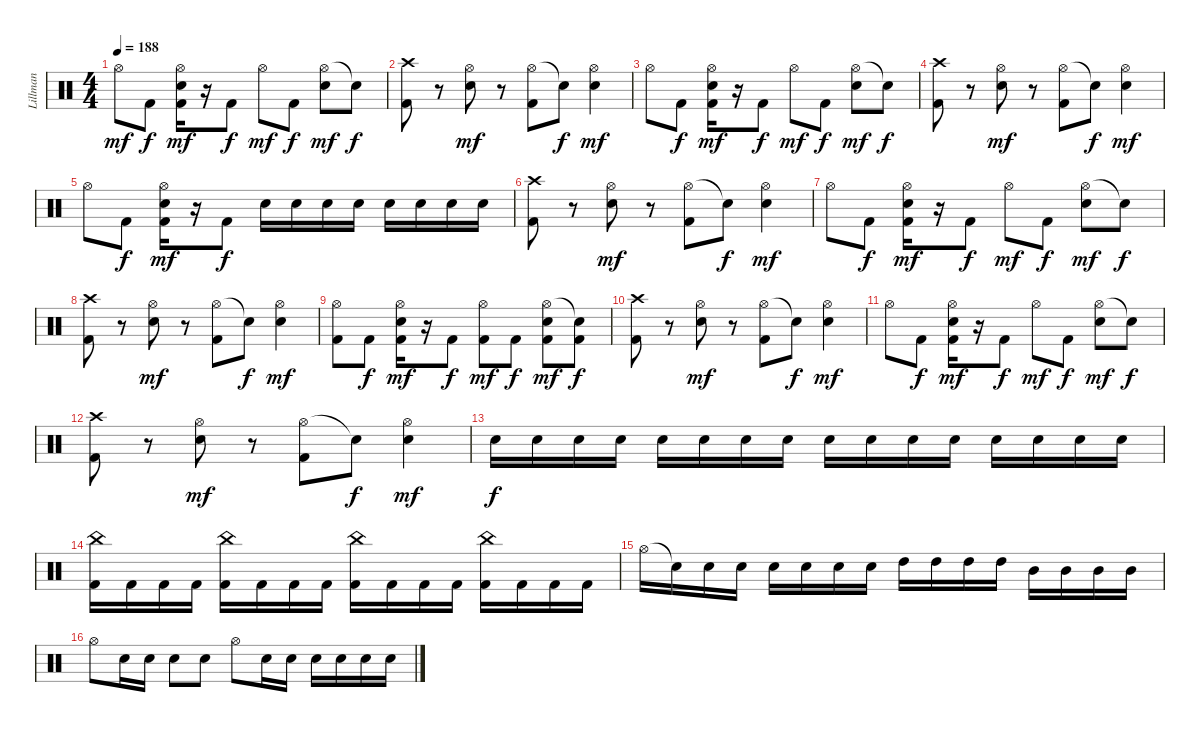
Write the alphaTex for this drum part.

\track ("Lillman" "Lillman") {instrument percussion}
\staff {score}
\articulation defaults
\ts (4 4)
\tempo 188
\clef neutral
\ks c "Hi-Hat (open)".8{dy mf} "Kick (hit) 2".8{dy f}
("Hi-Hat (open)" "Snare (hit) 2" "Kick (hit) 2").16{dy mf} r.16 "Kick (hit) 2".8{dy f} "Hi-Hat (open)".8{dy mf} "Kick (hit) 2".8{dy f} ("Hi-Hat (open)" "Snare (hit) 2").8{dy mf} "Snare (hit)"{t}.8{dy f} |
("Crash high (hit)" "Kick (hit) 2").8 r.8 ("Hi-Hat (open)" "Snare (hit) 2").8{dy mf} r.8 ("Hi-Hat (open)" "Kick (hit) 2").8 "Snare (hit)"{t}.8{dy f} ("Hi-Hat (open)" "Snare (hit) 2").4{dy mf} |
"Hi-Hat (open)".8 "Kick (hit) 2".8{dy f} ("Hi-Hat (open)" "Snare (hit) 2" "Kick (hit) 2").16{dy mf} r.16 "Kick (hit) 2".8{dy f} "Hi-Hat (open)".8{dy mf} "Kick (hit) 2".8{dy f} ("Hi-Hat (open)" "Snare (hit) 2").8{dy mf} "Snare (hit)"{t}.8{dy f} |
("Crash high (hit)" "Kick (hit) 2").8 r.8 ("Hi-Hat (open)" "Snare (hit) 2").8{dy mf} r.8 ("Hi-Hat (open)" "Kick (hit) 2").8 "Snare (hit)"{t}.8{dy f} ("Hi-Hat (open)" "Snare (hit) 2").4{dy mf} |
"Hi-Hat (open)".8 "Kick (hit) 2".8{dy f} ("Hi-Hat (open)" "Snare (hit) 2" "Kick (hit) 2").16{dy mf} r.16 "Kick (hit) 2".8{dy f} "Snare (hit) 2".16 "Snare (hit) 2".16 "Snare (hit) 2".16 "Snare (hit) 2".16 "Snare (hit) 2".16 "Snare (hit) 2".16 "Snare (hit) 2".16 "Snare (hit) 2".16 |
("Crash high (hit)" "Kick (hit) 2").8 r.8 ("Hi-Hat (open)" "Snare (hit) 2").8{dy mf} r.8 ("Hi-Hat (open)" "Kick (hit) 2").8 "Snare (hit)"{t}.8{dy f} ("Hi-Hat (open)" "Snare (hit) 2").4{dy mf} |
"Hi-Hat (open)".8 "Kick (hit) 2".8{dy f} ("Hi-Hat (open)" "Snare (hit) 2" "Kick (hit) 2").16{dy mf} r.16 "Kick (hit) 2".8{dy f} "Hi-Hat (open)".8{dy mf} "Kick (hit) 2".8{dy f} ("Hi-Hat (open)" "Snare (hit) 2").8{dy mf} "Snare (hit)"{t}.8{dy f} |
("Crash high (hit)" "Kick (hit) 2").8 r.8 ("Hi-Hat (open)" "Snare (hit) 2").8{dy mf} r.8 ("Hi-Hat (open)" "Kick (hit) 2").8 "Snare (hit)"{t}.8{dy f} ("Hi-Hat (open)" "Snare (hit) 2").4{dy mf} |
("Hi-Hat (open)" "Kick (hit) 2").8 "Kick (hit) 2".8{dy f} ("Hi-Hat (open)" "Snare (hit) 2" "Kick (hit) 2").16{dy mf} r.16 "Kick (hit) 2".8{dy f} ("Hi-Hat (open)" "Kick (hit) 2").8{dy mf} "Kick (hit) 2".8{dy f} ("Hi-Hat (open)" "Snare (hit) 2" "Kick (hit) 2").8{dy mf} ("Snare (hit)"{t} "Kick (hit) 2").8{dy f} |
("Crash high (hit)" "Kick (hit) 2").8 r.8 ("Hi-Hat (open)" "Snare (hit) 2").8{dy mf} r.8 ("Hi-Hat (open)" "Kick (hit) 2").8 "Snare (hit)"{t}.8{dy f} ("Hi-Hat (open)" "Snare (hit) 2").4{dy mf} |
"Hi-Hat (open)".8 "Kick (hit) 2".8{dy f} ("Hi-Hat (open)" "Snare (hit) 2" "Kick (hit) 2").16{dy mf} r.16 "Kick (hit) 2".8{dy f} "Hi-Hat (open)".8{dy mf} "Kick (hit) 2".8{dy f} ("Hi-Hat (open)" "Snare (hit) 2").8{dy mf} "Snare (hit)"{t}.8{dy f} |
("Crash high (hit)" "Kick (hit) 2").8 r.8 ("Hi-Hat (open)" "Snare (hit) 2").8{dy mf} r.8 ("Hi-Hat (open)" "Kick (hit) 2").8 "Snare (hit)"{t}.8{dy f} ("Hi-Hat (open)" "Snare (hit) 2").4{dy mf} |
"Snare (hit) 2".16{dy f} "Snare (hit) 2".16 "Snare (hit) 2".16 "Snare (hit) 2".16 "Snare (hit) 2".16 "Snare (hit) 2".16 "Snare (hit) 2".16 "Snare (hit) 2".16 "Snare (hit) 2".16 "Snare (hit) 2".16 "Snare (hit) 2".16 "Snare (hit) 2".16 "Snare (hit) 2".16 "Snare (hit) 2".16 "Snare (hit) 2".16 "Snare (hit) 2".16 |
("China (hit)" "Kick (hit) 2").16 "Kick (hit) 2".16 "Kick (hit) 2".16 "Kick (hit) 2".16 ("China (hit)" "Kick (hit) 2").16 "Kick (hit) 2".16 "Kick (hit) 2".16 "Kick (hit) 2".16 ("China (hit)" "Kick (hit) 2").16 "Kick (hit) 2".16 "Kick (hit) 2".16 "Kick (hit) 2".16 ("China (hit)" "Kick (hit) 2").16 "Kick (hit) 2".16 "Kick (hit) 2".16 "Kick (hit) 2".16 |
"Hi-Hat (open)".16 "Snare (hit)"{t}.16 "Snare (hit) 2".16 "Snare (hit) 2".16 "Snare (hit) 2".16 "Snare (hit) 2".16 "Snare (hit) 2".16 "Snare (hit) 2".16 "High Tom (hit)".16 "High Tom (hit)".16 "High Tom (hit)".16 "High Tom (hit)".16 "Mid Tom (hit)".16 "Mid Tom (hit)".16 "Mid Tom (hit)".16 "Mid Tom (hit)".16 |
"Hi-Hat (open)".8 "Snare (hit) 2".16 "Snare (hit) 2".16 "Snare (hit) 2".8 "Snare (hit) 2".8 "Hi-Hat (open)".8 "Snare (hit) 2".16 "Snare (hit) 2".16 "Snare (hit) 2".16 "Snare (hit) 2".16 "Snare (hit) 2".16 "Snare (hit) 2".16
